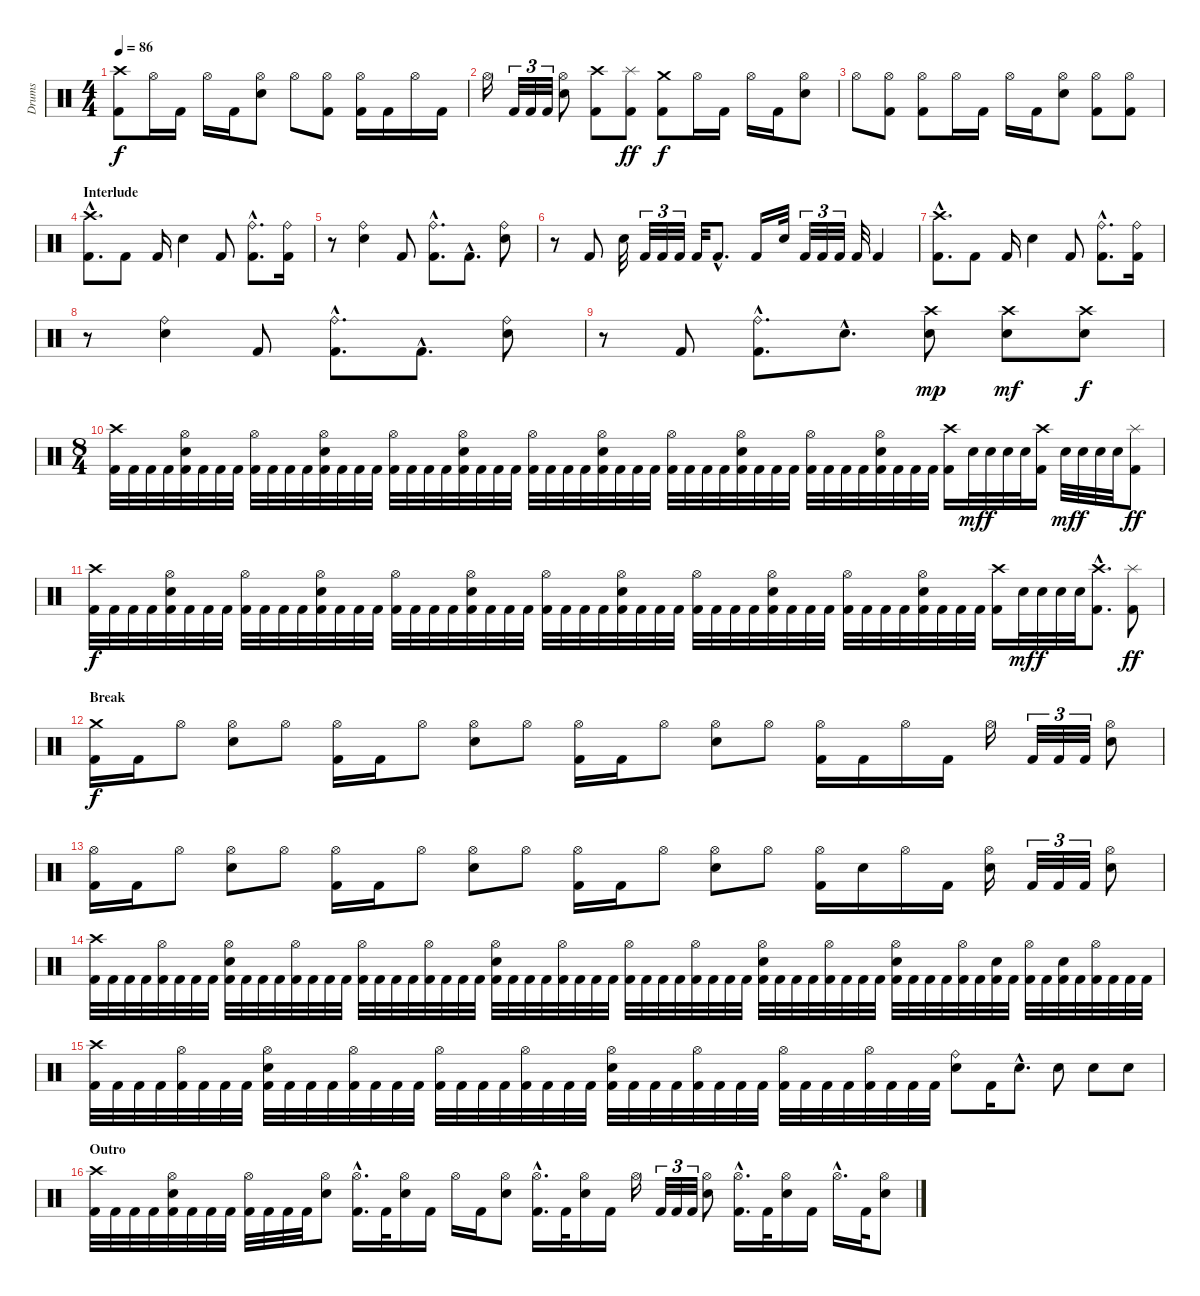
\track ("Drums" "Drums") {instrument percussion}
\staff {score}
\articulation defaults
\ts (4 4)
\tempo 86
\clef neutral
\ks c
("Crash high (hit)" "Kick (hit) 2").8{dy f} "Hi-Hat (open)".16 "Kick (hit) 2".16 "Hi-Hat (open)".16 "Kick (hit) 2".16 ("Hi-Hat (open)" "Electric Snare (hit)").8 "Hi-Hat (open)".8 ("Hi-Hat (open)" "Kick (hit) 2").8 ("Hi-Hat (open)" "Kick (hit) 2").16 "Kick (hit) 2".16 "Hi-Hat (open)".16 "Kick (hit) 2".16 |
"Hi-Hat (open)".16 "Kick (hit) 2".32{tu (3 2)} "Kick (hit) 2".32{tu (3 2)} "Kick (hit) 2".32{tu (3 2)} ("Hi-Hat (open)" "Electric Snare (hit)").8 ("Crash high (hit)" "Kick (hit) 2").8 ("Splash (hit)" "Kick (hit) 2").8{dy ff} ("Crash medium (hit)" "Kick (hit) 2").8{dy f} "Hi-Hat (open)".16 "Kick (hit) 2".16 "Hi-Hat (open)".16 "Kick (hit) 2".16 ("Hi-Hat (open)" "Electric Snare (hit)").8 |
"Hi-Hat (open)".8 ("Hi-Hat (open)" "Kick (hit) 2").8 ("Hi-Hat (open)" "Kick (hit) 2").8 "Hi-Hat (open)".16 "Kick (hit) 2".16 "Hi-Hat (open)".16 "Kick (hit) 2".16 ("Hi-Hat (open)" "Electric Snare (hit)").8 ("Hi-Hat (open)" "Kick (hit) 2").8 ("Hi-Hat (open)" "Kick (hit) 2").8 |
\section ("" "Interlude")
("Crash high (hit)"{hac} "Kick (hit) 2"{hac}).8{d} "Kick (hit) 2".8 "Kick (hit) 2".16 "Electric Snare (hit)".4 "Kick (hit) 2".8 ("Ride (bell)"{hac} "Kick (hit) 2"{hac}).8{d} ("Ride (bell)" "Kick (hit) 2").16 |
r.8 ("Ride (bell)" "Electric Snare (hit)").4 "Kick (hit) 2".8 ("Ride (bell)"{hac} "Kick (hit) 2"{hac}).8{d} "Kick (hit) 2"{hac}.8{d} ("Ride (bell)" "Electric Snare (hit)").8 |
r.8 "Kick (hit) 2".8 "Electric Snare (hit)".32 "Kick (hit) 2".32{tu (3 2)} "Kick (hit) 2".32{tu (3 2)} "Kick (hit) 2".32{tu (3 2)} "Kick (hit) 2".32 "Kick (hit) 2"{hac}.8{d} "Kick (hit) 2".16 "Electric Snare (hit)".32 "Kick (hit) 2".32{tu (3 2)} "Kick (hit) 2".32{tu (3 2)} "Kick (hit) 2".32{tu (3 2)} "Kick (hit) 2".32 "Kick (hit) 2".4 |
("Crash high (hit)"{hac} "Kick (hit) 2"{hac}).8{d} "Kick (hit) 2".8 "Kick (hit) 2".16 "Electric Snare (hit)".4 "Kick (hit) 2".8 ("Ride (bell)"{hac} "Kick (hit) 2"{hac}).8{d} ("Ride (bell)" "Kick (hit) 2").16 |
r.8 ("Ride (bell)" "Electric Snare (hit)").4 "Kick (hit) 2".8 ("Ride (bell)"{hac} "Kick (hit) 2"{hac}).8{d} "Kick (hit) 2"{hac}.8{d} ("Ride (bell)" "Electric Snare (hit)").8 |
r.8 "Kick (hit) 2".8 ("Ride (bell)"{hac} "Kick (hit) 2"{hac}).8{d} "Electric Snare (hit)"{hac}.8{d} ("Crash high (hit)" "Electric Snare (hit)").8{dy mp} ("Crash high (hit)" "Electric Snare (hit)").8{dy mf} ("Crash high (hit)" "Electric Snare (hit)").8{dy f} |
\ts (8 4)
("Crash high (hit)" "Kick (hit) 2").32 "Kick (hit) 2".32 "Kick (hit) 2".32 "Kick (hit) 2".32 ("Hi-Hat (open)" "Electric Snare (hit)" "Kick (hit) 2").32 "Kick (hit) 2".32 "Kick (hit) 2".32 "Kick (hit) 2".32 ("Hi-Hat (open)" "Kick (hit) 2").32 "Kick (hit) 2".32 "Kick (hit) 2".32 "Kick (hit) 2".32 ("Hi-Hat (open)" "Electric Snare (hit)" "Kick (hit) 2").32 "Kick (hit) 2".32 "Kick (hit) 2".32 "Kick (hit) 2".32 ("Hi-Hat (open)" "Kick (hit) 2").32 "Kick (hit) 2".32 "Kick (hit) 2".32 "Kick (hit) 2".32 ("Hi-Hat (open)" "Electric Snare (hit)" "Kick (hit) 2").32 "Kick (hit) 2".32 "Kick (hit) 2".32 "Kick (hit) 2".32 ("Hi-Hat (open)" "Kick (hit) 2").32 "Kick (hit) 2".32 "Kick (hit) 2".32 "Kick (hit) 2".32 ("Hi-Hat (open)" "Electric Snare (hit)" "Kick (hit) 2").32 "Kick (hit) 2".32 "Kick (hit) 2".32 "Kick (hit) 2".32 ("Hi-Hat (open)" "Kick (hit) 2").32 "Kick (hit) 2".32 "Kick (hit) 2".32 "Kick (hit) 2".32 ("Hi-Hat (open)" "Electric Snare (hit)" "Kick (hit) 2").32 "Kick (hit) 2".32 "Kick (hit) 2".32 "Kick (hit) 2".32 ("Hi-Hat (open)" "Kick (hit) 2").32 "Kick (hit) 2".32 "Kick (hit) 2".32 "Kick (hit) 2".32 ("Hi-Hat (open)" "Electric Snare (hit)" "Kick (hit) 2").32 "Kick (hit) 2".32 "Kick (hit) 2".32 "Kick (hit) 2".32 ("Crash high (hit)" "Kick (hit) 2").16 "Electric Snare (hit)".32{dy mf} "Electric Snare (hit)".32{dy f} "Electric Snare (hit)".32 "Electric Snare (hit)".32 ("Crash high (hit)" "Kick (hit) 2").16 "Electric Snare (hit)".32{dy mf} "Electric Snare (hit)".32{dy f} "Electric Snare (hit)".32 "Electric Snare (hit)".32 ("Splash (hit)" "Kick (hit) 2").8{dy ff} |
("Crash high (hit)" "Kick (hit) 2").32{dy f} "Kick (hit) 2".32 "Kick (hit) 2".32 "Kick (hit) 2".32 ("Hi-Hat (open)" "Electric Snare (hit)" "Kick (hit) 2").32 "Kick (hit) 2".32 "Kick (hit) 2".32 "Kick (hit) 2".32 ("Hi-Hat (open)" "Kick (hit) 2").32 "Kick (hit) 2".32 "Kick (hit) 2".32 "Kick (hit) 2".32 ("Hi-Hat (open)" "Electric Snare (hit)" "Kick (hit) 2").32 "Kick (hit) 2".32 "Kick (hit) 2".32 "Kick (hit) 2".32 ("Hi-Hat (open)" "Kick (hit) 2").32 "Kick (hit) 2".32 "Kick (hit) 2".32 "Kick (hit) 2".32 ("Hi-Hat (open)" "Electric Snare (hit)" "Kick (hit) 2").32 "Kick (hit) 2".32 "Kick (hit) 2".32 "Kick (hit) 2".32 ("Hi-Hat (open)" "Kick (hit) 2").32 "Kick (hit) 2".32 "Kick (hit) 2".32 "Kick (hit) 2".32 ("Hi-Hat (open)" "Electric Snare (hit)" "Kick (hit) 2").32 "Kick (hit) 2".32 "Kick (hit) 2".32 "Kick (hit) 2".32 ("Hi-Hat (open)" "Kick (hit) 2").32 "Kick (hit) 2".32 "Kick (hit) 2".32 "Kick (hit) 2".32 ("Hi-Hat (open)" "Electric Snare (hit)" "Kick (hit) 2").32 "Kick (hit) 2".32 "Kick (hit) 2".32 "Kick (hit) 2".32 ("Hi-Hat (open)" "Kick (hit) 2").32 "Kick (hit) 2".32 "Kick (hit) 2".32 "Kick (hit) 2".32 ("Hi-Hat (open)" "Electric Snare (hit)" "Kick (hit) 2").32 "Kick (hit) 2".32 "Kick (hit) 2".32 "Kick (hit) 2".32 ("Crash high (hit)" "Kick (hit) 2").16 "Electric Snare (hit)".32{dy mf} "Electric Snare (hit)".32{dy f} "Electric Snare (hit)".32 "Electric Snare (hit)".32 ("Crash high (hit)"{hac} "Kick (hit) 2"{hac}).8{d} ("Splash (hit)" "Kick (hit) 2").8{dy ff} |
\section ("" "Break")
("Crash medium (hit)" "Kick (hit) 2").16{dy f} "Kick (hit) 2".16 "Hi-Hat (open)".8 ("Hi-Hat (open)" "Electric Snare (hit)").8 "Hi-Hat (open)".8 ("Hi-Hat (open)" "Kick (hit) 2").16 "Kick (hit) 2".16 "Hi-Hat (open)".8 ("Hi-Hat (open)" "Electric Snare (hit)").8 "Hi-Hat (open)".8 ("Hi-Hat (open)" "Kick (hit) 2").16 "Kick (hit) 2".16 "Hi-Hat (open)".8 ("Hi-Hat (open)" "Electric Snare (hit)").8 "Hi-Hat (open)".8 ("Hi-Hat (open)" "Kick (hit) 2").16 "Kick (hit) 2".16 "Hi-Hat (open)".16 "Kick (hit) 2".16 "Hi-Hat (open)".16 "Kick (hit) 2".32{tu (3 2)} "Kick (hit) 2".32{tu (3 2)} "Kick (hit) 2".32{tu (3 2)} ("Hi-Hat (open)" "Electric Snare (hit)").8 |
("Hi-Hat (open)" "Kick (hit) 2").16 "Kick (hit) 2".16 "Hi-Hat (open)".8 ("Hi-Hat (open)" "Electric Snare (hit)").8 "Hi-Hat (open)".8 ("Hi-Hat (open)" "Kick (hit) 2").16 "Kick (hit) 2".16 "Hi-Hat (open)".8 ("Hi-Hat (open)" "Electric Snare (hit)").8 "Hi-Hat (open)".8 ("Hi-Hat (open)" "Kick (hit) 2").16 "Kick (hit) 2".16 "Hi-Hat (open)".8 ("Hi-Hat (open)" "Electric Snare (hit)").8 "Hi-Hat (open)".8 ("Hi-Hat (open)" "Kick (hit) 2").16 "Electric Snare (hit)".16 "Hi-Hat (open)".16 "Kick (hit) 2".16 ("Hi-Hat (open)" "Electric Snare (hit)").16 "Kick (hit) 2".32{tu (3 2)} "Kick (hit) 2".32{tu (3 2)} "Kick (hit) 2".32{tu (3 2)} ("Hi-Hat (open)" "Electric Snare (hit)").8 |
("Crash high (hit)" "Kick (hit) 2").32 "Kick (hit) 2".32 "Kick (hit) 2".32 "Kick (hit) 2".32 ("Hi-Hat (open)" "Kick (hit) 2").32 "Kick (hit) 2".32 "Kick (hit) 2".32 "Kick (hit) 2".32 ("Hi-Hat (open)" "Electric Snare (hit)" "Kick (hit) 2").32 "Kick (hit) 2".32 "Kick (hit) 2".32 "Kick (hit) 2".32 ("Hi-Hat (open)" "Kick (hit) 2").32 "Kick (hit) 2".32 "Kick (hit) 2".32 "Kick (hit) 2".32 ("Hi-Hat (open)" "Kick (hit) 2").32 "Kick (hit) 2".32 "Kick (hit) 2".32 "Kick (hit) 2".32 ("Hi-Hat (open)" "Kick (hit) 2").32 "Kick (hit) 2".32 "Kick (hit) 2".32 "Kick (hit) 2".32 ("Hi-Hat (open)" "Electric Snare (hit)" "Kick (hit) 2").32 "Kick (hit) 2".32 "Kick (hit) 2".32 "Kick (hit) 2".32 ("Hi-Hat (open)" "Kick (hit) 2").32 "Kick (hit) 2".32 "Kick (hit) 2".32 "Kick (hit) 2".32 ("Hi-Hat (open)" "Kick (hit) 2").32 "Kick (hit) 2".32 "Kick (hit) 2".32 "Kick (hit) 2".32 ("Hi-Hat (open)" "Kick (hit) 2").32 "Kick (hit) 2".32 "Kick (hit) 2".32 "Kick (hit) 2".32 ("Hi-Hat (open)" "Electric Snare (hit)" "Kick (hit) 2").32 "Kick (hit) 2".32 "Kick (hit) 2".32 "Kick (hit) 2".32 ("Hi-Hat (open)" "Kick (hit) 2").32 "Kick (hit) 2".32 "Kick (hit) 2".32 "Kick (hit) 2".32 ("Hi-Hat (open)" "Electric Snare (hit)" "Kick (hit) 2").32 "Kick (hit) 2".32 "Kick (hit) 2".32 "Kick (hit) 2".32 ("Hi-Hat (open)" "Kick (hit) 2").32 "Kick (hit) 2".32 ("Electric Snare (hit)" "Kick (hit) 2").32 "Kick (hit) 2".32 ("Hi-Hat (open)" "Kick (hit) 2").32 "Kick (hit) 2".32 ("Electric Snare (hit)" "Kick (hit) 2").32 "Kick (hit) 2".32 ("Hi-Hat (open)" "Kick (hit) 2").32 "Kick (hit) 2".32 "Kick (hit) 2".32 "Kick (hit) 2".32 |
("Crash high (hit)" "Kick (hit) 2").32 "Kick (hit) 2".32 "Kick (hit) 2".32 "Kick (hit) 2".32 ("Hi-Hat (open)" "Kick (hit) 2").32 "Kick (hit) 2".32 "Kick (hit) 2".32 "Kick (hit) 2".32 ("Hi-Hat (open)" "Electric Snare (hit)" "Kick (hit) 2").32 "Kick (hit) 2".32 "Kick (hit) 2".32 "Kick (hit) 2".32 ("Hi-Hat (open)" "Kick (hit) 2").32 "Kick (hit) 2".32 "Kick (hit) 2".32 "Kick (hit) 2".32 ("Hi-Hat (open)" "Kick (hit) 2").32 "Kick (hit) 2".32 "Kick (hit) 2".32 "Kick (hit) 2".32 ("Hi-Hat (open)" "Kick (hit) 2").32 "Kick (hit) 2".32 "Kick (hit) 2".32 "Kick (hit) 2".32 ("Hi-Hat (open)" "Electric Snare (hit)" "Kick (hit) 2").32 "Kick (hit) 2".32 "Kick (hit) 2".32 "Kick (hit) 2".32 ("Hi-Hat (open)" "Kick (hit) 2").32 "Kick (hit) 2".32 "Kick (hit) 2".32 "Kick (hit) 2".32 ("Hi-Hat (open)" "Kick (hit) 2").32 "Kick (hit) 2".32 "Kick (hit) 2".32 "Kick (hit) 2".32 ("Hi-Hat (open)" "Kick (hit) 2").32 "Kick (hit) 2".32 "Kick (hit) 2".32 "Kick (hit) 2".32 ("Ride (bell)" "Electric Snare (hit)").8 "Kick (hit) 2".16 "Electric Snare (hit)"{hac}.8{d} "Electric Snare (hit)".8 "Electric Snare (hit)".8 "Electric Snare (hit)".8 |
\section ("" "Outro")
("Crash high (hit)" "Kick (hit) 2").32 "Kick (hit) 2".32 "Kick (hit) 2".32 "Kick (hit) 2".32 ("Hi-Hat (open)" "Electric Snare (hit)" "Kick (hit) 2").32 "Kick (hit) 2".32 "Kick (hit) 2".32 "Kick (hit) 2".32 ("Hi-Hat (open)" "Kick (hit) 2").32 "Kick (hit) 2".32 "Kick (hit) 2".32 "Kick (hit) 2".32 ("Hi-Hat (open)" "Electric Snare (hit)").8 ("Hi-Hat (open)"{hac} "Kick (hit) 2"{hac}).16{d} "Kick (hit) 2".32 ("Hi-Hat (open)" "Electric Snare (hit)").16 "Kick (hit) 2".16 "Hi-Hat (open)".16 "Kick (hit) 2".16 ("Hi-Hat (open)" "Electric Snare (hit)").8 ("Hi-Hat (open)"{hac} "Kick (hit) 2"{hac}).16{d} "Kick (hit) 2".32 ("Hi-Hat (open)" "Electric Snare (hit)").16 "Kick (hit) 2".16 "Hi-Hat (open)".16 "Kick (hit) 2".32{tu (3 2)} "Kick (hit) 2".32{tu (3 2)} "Kick (hit) 2".32{tu (3 2)} ("Hi-Hat (open)" "Electric Snare (hit)").8 ("Hi-Hat (open)"{hac} "Kick (hit) 2"{hac}).16{d} "Kick (hit) 2".32 ("Hi-Hat (open)" "Electric Snare (hit)").16 "Kick (hit) 2".16 "Hi-Hat (open)"{hac}.16{d} "Kick (hit) 2".32 ("Hi-Hat (open)" "Electric Snare (hit)").8
